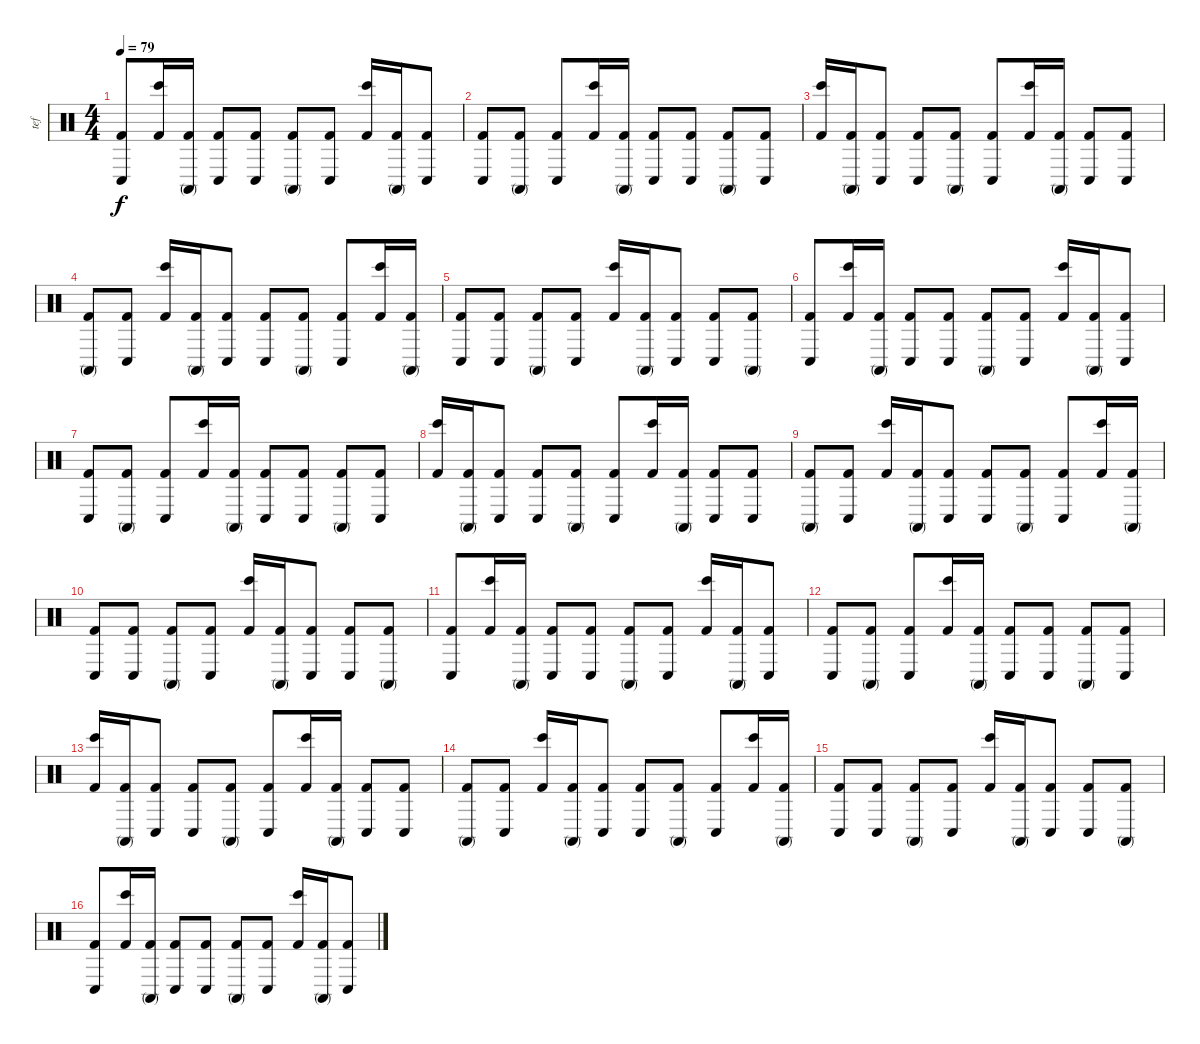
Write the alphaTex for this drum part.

\track ("tef" "tef") {instrument percussion}
\staff {score}
\articulation defaults
\ts (4 4)
\tempo 79
\clef neutral
\ks c
("Conga low (hit)" "Kick (hit) 2").8{dy f} ("Bongo High (hit)" "Kick (hit) 2").16 ("Conga high (mute)" "Kick (hit) 2").16 ("Conga low (hit)" "Kick (hit) 2").8 ("Conga low (hit)" "Kick (hit) 2").8 ("Conga high (mute)" "Kick (hit) 2").8 ("Conga low (hit)" "Kick (hit) 2").8 ("Bongo High (hit)" "Kick (hit) 2").16 ("Conga high (mute)" "Kick (hit) 2").16 ("Conga low (hit)" "Kick (hit) 2").8 |
("Conga low (hit)" "Kick (hit) 2").8 ("Conga high (mute)" "Kick (hit) 2").8 ("Conga low (hit)" "Kick (hit) 2").8 ("Bongo High (hit)" "Kick (hit) 2").16 ("Conga high (mute)" "Kick (hit) 2").16 ("Conga low (hit)" "Kick (hit) 2").8 ("Conga low (hit)" "Kick (hit) 2").8 ("Conga high (mute)" "Kick (hit) 2").8 ("Conga low (hit)" "Kick (hit) 2").8 |
("Bongo High (hit)" "Kick (hit) 2").16 ("Conga high (mute)" "Kick (hit) 2").16 ("Conga low (hit)" "Kick (hit) 2").8 ("Conga low (hit)" "Kick (hit) 2").8 ("Conga high (mute)" "Kick (hit) 2").8 ("Conga low (hit)" "Kick (hit) 2").8 ("Bongo High (hit)" "Kick (hit) 2").16 ("Conga high (mute)" "Kick (hit) 2").16 ("Conga low (hit)" "Kick (hit) 2").8 ("Conga low (hit)" "Kick (hit) 2").8 |
("Conga high (mute)" "Kick (hit) 2").8 ("Conga low (hit)" "Kick (hit) 2").8 ("Bongo High (hit)" "Kick (hit) 2").16 ("Conga high (mute)" "Kick (hit) 2").16 ("Conga low (hit)" "Kick (hit) 2").8 ("Conga low (hit)" "Kick (hit) 2").8 ("Conga high (mute)" "Kick (hit) 2").8 ("Conga low (hit)" "Kick (hit) 2").8 ("Bongo High (hit)" "Kick (hit) 2").16 ("Conga high (mute)" "Kick (hit) 2").16 |
("Conga low (hit)" "Kick (hit) 2").8 ("Conga low (hit)" "Kick (hit) 2").8 ("Conga high (mute)" "Kick (hit) 2").8 ("Conga low (hit)" "Kick (hit) 2").8 ("Bongo High (hit)" "Kick (hit) 2").16 ("Conga high (mute)" "Kick (hit) 2").16 ("Conga low (hit)" "Kick (hit) 2").8 ("Conga low (hit)" "Kick (hit) 2").8 ("Conga high (mute)" "Kick (hit) 2").8 |
("Conga low (hit)" "Kick (hit) 2").8 ("Bongo High (hit)" "Kick (hit) 2").16 ("Conga high (mute)" "Kick (hit) 2").16 ("Conga low (hit)" "Kick (hit) 2").8 ("Conga low (hit)" "Kick (hit) 2").8 ("Conga high (mute)" "Kick (hit) 2").8 ("Conga low (hit)" "Kick (hit) 2").8 ("Bongo High (hit)" "Kick (hit) 2").16 ("Conga high (mute)" "Kick (hit) 2").16 ("Conga low (hit)" "Kick (hit) 2").8 |
("Conga low (hit)" "Kick (hit) 2").8 ("Conga high (mute)" "Kick (hit) 2").8 ("Conga low (hit)" "Kick (hit) 2").8 ("Bongo High (hit)" "Kick (hit) 2").16 ("Conga high (mute)" "Kick (hit) 2").16 ("Conga low (hit)" "Kick (hit) 2").8 ("Conga low (hit)" "Kick (hit) 2").8 ("Conga high (mute)" "Kick (hit) 2").8 ("Conga low (hit)" "Kick (hit) 2").8 |
("Bongo High (hit)" "Kick (hit) 2").16 ("Conga high (mute)" "Kick (hit) 2").16 ("Conga low (hit)" "Kick (hit) 2").8 ("Conga low (hit)" "Kick (hit) 2").8 ("Conga high (mute)" "Kick (hit) 2").8 ("Conga low (hit)" "Kick (hit) 2").8 ("Bongo High (hit)" "Kick (hit) 2").16 ("Conga high (mute)" "Kick (hit) 2").16 ("Conga low (hit)" "Kick (hit) 2").8 ("Conga low (hit)" "Kick (hit) 2").8 |
("Conga high (mute)" "Kick (hit) 2").8 ("Conga low (hit)" "Kick (hit) 2").8 ("Bongo High (hit)" "Kick (hit) 2").16 ("Conga high (mute)" "Kick (hit) 2").16 ("Conga low (hit)" "Kick (hit) 2").8 ("Conga low (hit)" "Kick (hit) 2").8 ("Conga high (mute)" "Kick (hit) 2").8 ("Conga low (hit)" "Kick (hit) 2").8 ("Bongo High (hit)" "Kick (hit) 2").16 ("Conga high (mute)" "Kick (hit) 2").16 |
("Conga low (hit)" "Kick (hit) 2").8 ("Conga low (hit)" "Kick (hit) 2").8 ("Conga high (mute)" "Kick (hit) 2").8 ("Conga low (hit)" "Kick (hit) 2").8 ("Bongo High (hit)" "Kick (hit) 2").16 ("Conga high (mute)" "Kick (hit) 2").16 ("Conga low (hit)" "Kick (hit) 2").8 ("Conga low (hit)" "Kick (hit) 2").8 ("Conga high (mute)" "Kick (hit) 2").8 |
("Conga low (hit)" "Kick (hit) 2").8 ("Bongo High (hit)" "Kick (hit) 2").16 ("Conga high (mute)" "Kick (hit) 2").16 ("Conga low (hit)" "Kick (hit) 2").8 ("Conga low (hit)" "Kick (hit) 2").8 ("Conga high (mute)" "Kick (hit) 2").8 ("Conga low (hit)" "Kick (hit) 2").8 ("Bongo High (hit)" "Kick (hit) 2").16 ("Conga high (mute)" "Kick (hit) 2").16 ("Conga low (hit)" "Kick (hit) 2").8 |
("Conga low (hit)" "Kick (hit) 2").8 ("Conga high (mute)" "Kick (hit) 2").8 ("Conga low (hit)" "Kick (hit) 2").8 ("Bongo High (hit)" "Kick (hit) 2").16 ("Conga high (mute)" "Kick (hit) 2").16 ("Conga low (hit)" "Kick (hit) 2").8 ("Conga low (hit)" "Kick (hit) 2").8 ("Conga high (mute)" "Kick (hit) 2").8 ("Conga low (hit)" "Kick (hit) 2").8 |
("Bongo High (hit)" "Kick (hit) 2").16 ("Conga high (mute)" "Kick (hit) 2").16 ("Conga low (hit)" "Kick (hit) 2").8 ("Conga low (hit)" "Kick (hit) 2").8 ("Conga high (mute)" "Kick (hit) 2").8 ("Conga low (hit)" "Kick (hit) 2").8 ("Bongo High (hit)" "Kick (hit) 2").16 ("Conga high (mute)" "Kick (hit) 2").16 ("Conga low (hit)" "Kick (hit) 2").8 ("Conga low (hit)" "Kick (hit) 2").8 |
("Conga high (mute)" "Kick (hit) 2").8 ("Conga low (hit)" "Kick (hit) 2").8 ("Bongo High (hit)" "Kick (hit) 2").16 ("Conga high (mute)" "Kick (hit) 2").16 ("Conga low (hit)" "Kick (hit) 2").8 ("Conga low (hit)" "Kick (hit) 2").8 ("Conga high (mute)" "Kick (hit) 2").8 ("Conga low (hit)" "Kick (hit) 2").8 ("Bongo High (hit)" "Kick (hit) 2").16 ("Conga high (mute)" "Kick (hit) 2").16 |
("Conga low (hit)" "Kick (hit) 2").8 ("Conga low (hit)" "Kick (hit) 2").8 ("Conga high (mute)" "Kick (hit) 2").8 ("Conga low (hit)" "Kick (hit) 2").8 ("Bongo High (hit)" "Kick (hit) 2").16 ("Conga high (mute)" "Kick (hit) 2").16 ("Conga low (hit)" "Kick (hit) 2").8 ("Conga low (hit)" "Kick (hit) 2").8 ("Conga high (mute)" "Kick (hit) 2").8 |
("Conga low (hit)" "Kick (hit) 2").8 ("Bongo High (hit)" "Kick (hit) 2").16 ("Conga high (mute)" "Kick (hit) 2").16 ("Conga low (hit)" "Kick (hit) 2").8 ("Conga low (hit)" "Kick (hit) 2").8 ("Conga high (mute)" "Kick (hit) 2").8 ("Conga low (hit)" "Kick (hit) 2").8 ("Bongo High (hit)" "Kick (hit) 2").16 ("Conga high (mute)" "Kick (hit) 2").16 ("Conga low (hit)" "Kick (hit) 2").8
